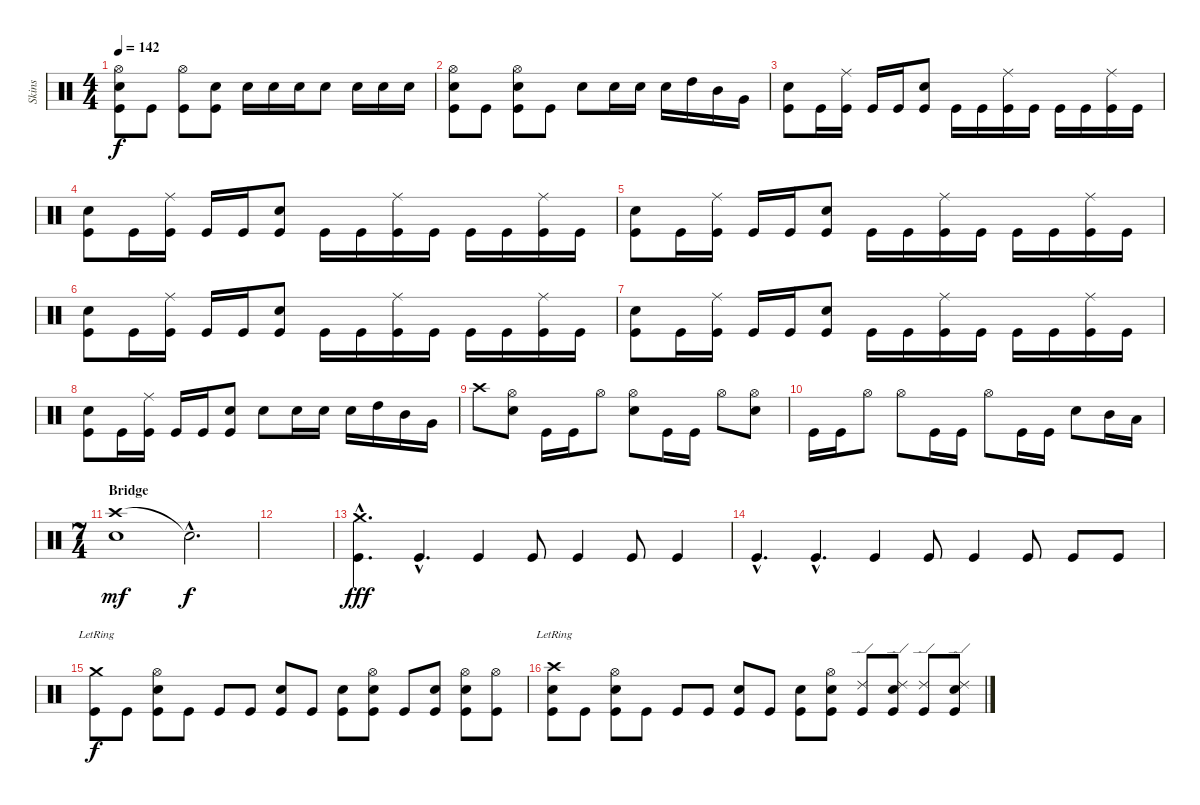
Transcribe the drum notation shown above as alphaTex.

\track ("Skins" "Skins") {instrument percussion}
\staff {score}
\articulation defaults
\ts (4 4)
\tempo 142
\clef neutral
\ks c
("Hi-Hat (open)" "Electric Snare (hit)" "Kick (hit)").8{dy f} "Kick (hit)".8 ("Hi-Hat (open)" "Kick (hit)").8 ("Snare (hit) 2" "Kick (hit)").8 "Electric Snare (hit)".16 "Electric Snare (hit)".16 "Snare (hit) 2".16 "Snare (hit) 2".8 "Electric Snare (hit)".16 "Snare (hit) 2".16 "Snare (hit) 2".16 |
("Hi-Hat (open)" "Electric Snare (hit)" "Kick (hit)").8 "Kick (hit)".8 ("Hi-Hat (open)" "Electric Snare (hit)" "Kick (hit)").8 "Kick (hit)".8 "Electric Snare (hit)".8 "Electric Snare (hit)".16 "Electric Snare (hit)".16 "Electric Snare (hit)".16 "High Tom (hit)".16 "Mid Tom (hit)".16 "Very Low Tom (hit)".16 |
("Electric Snare (hit)" "Kick (hit)").8 "Kick (hit)".16 ("Ride (middle)" "Kick (hit)").16 "Kick (hit)".16 "Kick (hit)".16 ("Electric Snare (hit)" "Kick (hit)").8 "Kick (hit)".16 "Kick (hit)".16 ("Ride (middle)" "Kick (hit)").16 "Kick (hit)".16 "Kick (hit)".16 "Kick (hit)".16 ("Ride (middle)" "Kick (hit)").16 "Kick (hit)".16 |
("Electric Snare (hit)" "Kick (hit)").8 "Kick (hit)".16 ("Ride (middle)" "Kick (hit)").16 "Kick (hit)".16 "Kick (hit)".16 ("Electric Snare (hit)" "Kick (hit)").8 "Kick (hit)".16 "Kick (hit)".16 ("Ride (middle)" "Kick (hit)").16 "Kick (hit)".16 "Kick (hit)".16 "Kick (hit)".16 ("Ride (middle)" "Kick (hit)").16 "Kick (hit)".16 |
("Electric Snare (hit)" "Kick (hit)").8 "Kick (hit)".16 ("Ride (middle)" "Kick (hit)").16 "Kick (hit)".16 "Kick (hit)".16 ("Electric Snare (hit)" "Kick (hit)").8 "Kick (hit)".16 "Kick (hit)".16 ("Ride (middle)" "Kick (hit)").16 "Kick (hit)".16 "Kick (hit)".16 "Kick (hit)".16 ("Ride (middle)" "Kick (hit)").16 "Kick (hit)".16 |
("Electric Snare (hit)" "Kick (hit)").8 "Kick (hit)".16 ("Ride (middle)" "Kick (hit)").16 "Kick (hit)".16 "Kick (hit)".16 ("Electric Snare (hit)" "Kick (hit)").8 "Kick (hit)".16 "Kick (hit)".16 ("Ride (middle)" "Kick (hit)").16 "Kick (hit)".16 "Kick (hit)".16 "Kick (hit)".16 ("Ride (middle)" "Kick (hit)").16 "Kick (hit)".16 |
("Electric Snare (hit)" "Kick (hit)").8 "Kick (hit)".16 ("Ride (middle)" "Kick (hit)").16 "Kick (hit)".16 "Kick (hit)".16 ("Electric Snare (hit)" "Kick (hit)").8 "Kick (hit)".16 "Kick (hit)".16 ("Ride (middle)" "Kick (hit)").16 "Kick (hit)".16 "Kick (hit)".16 "Kick (hit)".16 ("Ride (middle)" "Kick (hit)").16 "Kick (hit)".16 |
("Electric Snare (hit)" "Kick (hit)").8 "Kick (hit)".16 ("Ride (middle)" "Kick (hit)").16 "Kick (hit)".16 "Kick (hit)".16 ("Electric Snare (hit)" "Kick (hit)").8 "Electric Snare (hit)".8 "Electric Snare (hit)".16 "Electric Snare (hit)".16 "Electric Snare (hit)".16 "High Tom (hit)".16 "Mid Tom (hit)".16 "Very Low Tom (hit)".16 |
"Crash high (hit)".8 ("Hi-Hat (open)" "Electric Snare (hit)").8 "Kick (hit)".16 "Kick (hit)".16 "Hi-Hat (open)".8 ("Hi-Hat (open)" "Electric Snare (hit)").8 "Kick (hit)".16 "Kick (hit)".16 "Hi-Hat (open)".8 ("Hi-Hat (open)" "Electric Snare (hit)").8 |
"Kick (hit)".16 "Kick (hit)".16 "Hi-Hat (open)".8 "Hi-Hat (open)".8 "Kick (hit)".16 "Kick (hit)".16 "Hi-Hat (open)".8 "Kick (hit)".16 "Kick (hit)".16 "Snare (hit) 2".8 "Mid Tom (hit)".16 "Low Tom (hit)".16 |
\ts (7 4)
\section ("" "Bridge")
("Crash high (hit)" "Electric Snare (hit)").1{dy mf} "Snare (hit)"{hac t}.2{d dy f} |
|
("Crash medium (hit)"{hac} "Kick (hit)"{hac}).4{d dy fff} "Kick (hit)"{hac}.4{d} "Kick (hit)".4 "Kick (hit)".8 "Kick (hit)".4 "Kick (hit)".8 "Kick (hit)".4 |
"Kick (hit)"{hac}.4{d} "Kick (hit)"{hac}.4{d} "Kick (hit)".4 "Kick (hit)".8 "Kick (hit)".4 "Kick (hit)".8 "Kick (hit)".8 "Kick (hit)".8 |
("Crash medium (hit)"{lr} "Kick (hit)").8{dy f} "Kick (hit)".8 ("Electric Snare (hit)" "Hi-Hat (open)" "Kick (hit)").8 "Kick (hit)".8 "Kick (hit)".8 "Kick (hit)".8 ("Snare (hit) 2" "Kick (hit)").8 "Kick (hit)".8 ("Snare (hit) 2" "Kick (hit)").8 ("Hi-Hat (open)" "Electric Snare (hit)" "Kick (hit)").8 "Kick (hit)".8 ("Snare (hit) 2" "Kick (hit)").8 ("Hi-Hat (open)" "Snare (hit) 2" "Kick (hit)").8 ("Hi-Hat (open)" "Kick (hit)").8 |
("Crash high (hit)"{lr} "Snare (hit) 2" "Kick (hit)").8 "Kick (hit)".8 ("Electric Snare (hit)" "Hi-Hat (open)" "Kick (hit)").8 "Kick (hit)".8 "Kick (hit)".8 "Kick (hit)".8 ("Snare (hit) 2" "Kick (hit)").8 "Kick (hit)".8 ("Snare (hit) 2" "Kick (hit)").8 ("Hi-Hat (open)" "Electric Snare (hit)" "Kick (hit)").8 ("Ride (edge) 2" "Kick (hit)").8 ("Ride (edge) 2" "Snare (hit) 2" "Kick (hit)").8 ("Ride (edge) 2" "Kick (hit)").8 ("Ride (edge) 2" "Snare (hit) 2" "Kick (hit)").8
